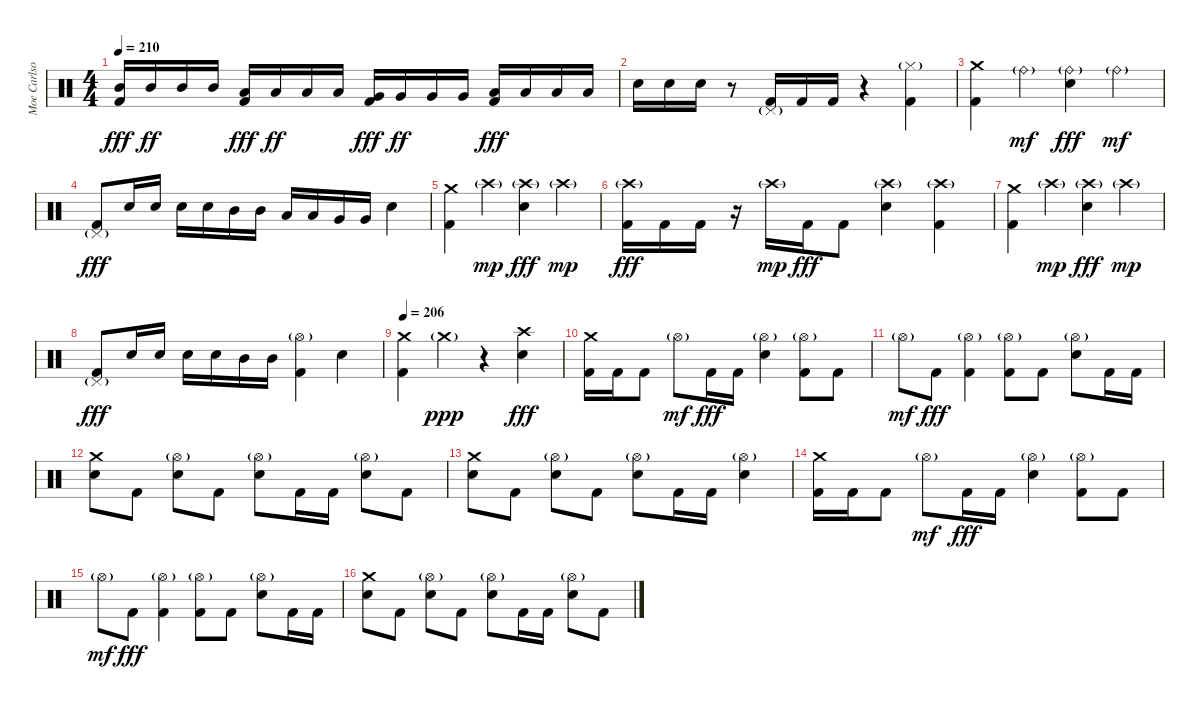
\track ("Moe Carlson" "Moe Carlso") {instrument percussion}
\staff {score}
\articulation defaults
\ts (4 4)
\tempo 210
\clef neutral
\ks c
("Mid Tom (hit)" "Kick (hit) 2").16{dy fff} "Mid Tom (hit)".16{dy ff} "Mid Tom (hit)".16 "Mid Tom (hit)".16 ("Low Tom (hit)" "Kick (hit) 2").16{dy fff} "Low Tom (hit)".16{dy ff} "Low Tom (hit)".16 "Low Tom (hit)".16 ("Very Low Tom (hit)" "Kick (hit) 2").16{dy fff} "Very Low Tom (hit)".16{dy ff} "Very Low Tom (hit)".16 "Very Low Tom (hit)".16 ("Low Floor Tom (hit)" "Kick (hit) 2").16{dy fff} "Low Floor Tom (hit)".16 "Low Floor Tom (hit)".16 "Low Floor Tom (hit)".16 |
"Electric Snare (hit)".16 "Electric Snare (hit)".16 "Electric Snare (hit)".16 r.8 ("Pedal Hi-Hat (hit)"{g} "Kick (hit) 2").16 "Kick (hit) 2".16 "Kick (hit) 2".16 r.4 ("Hi-Hat (closed)"{g} "Kick (hit) 2").4 |
("Crash medium (hit)" "Kick (hit) 2").4 "Ride (bell)"{g}.4{dy mf} ("Ride (bell)"{g} "Electric Snare (hit)").4{dy fff} "Ride (bell)"{g}.4{dy mf} |
("Pedal Hi-Hat (hit)"{g} "Kick (hit) 2").8{dy fff} "Electric Snare (hit)".16 "Electric Snare (hit)".16 "Electric Snare (hit)".16 "Electric Snare (hit)".16 "Mid Tom (hit)".16 "Mid Tom (hit)".16 "Low Tom (hit)".16 "Low Tom (hit)".16 "Very Low Tom (hit)".16 "Very Low Tom (hit)".16 "Electric Snare (hit)".4 |
("Crash medium (hit)" "Kick (hit) 2").4 "Crash high (hit)"{g}.4{dy mp} ("Crash high (hit)"{g} "Electric Snare (hit)").4{dy fff} "Crash high (hit)"{g}.4{dy mp} |
("Crash high (hit)"{g} "Kick (hit) 2").16{dy fff} "Kick (hit) 2".16 "Kick (hit) 2".16 r.16 "Crash high (hit)"{g}.16{dy mp} "Kick (hit) 2".16{dy fff} "Kick (hit) 2".8 ("Crash high (hit)"{g} "Electric Snare (hit)").4 ("Crash high (hit)"{g} "Kick (hit) 2").4 |
("Crash medium (hit)" "Kick (hit) 2").4 "Crash high (hit)"{g}.4{dy mp} ("Crash high (hit)"{g} "Electric Snare (hit)").4{dy fff} "Crash high (hit)"{g}.4{dy mp} |
("Pedal Hi-Hat (hit)"{g} "Kick (hit) 2").8{dy fff} "Electric Snare (hit)".16 "Electric Snare (hit)".16 "Electric Snare (hit)".16 "Electric Snare (hit)".16 "Mid Tom (hit)".16 "Mid Tom (hit)".16 ("Hi-Hat (open)"{g} "Kick (hit) 2").4 "Electric Snare (hit)".4 |
\tempo 206
("Crash medium (hit)" "Kick (hit) 2").4 "Crash medium (hit)"{g}.4{dy ppp} r.4 ("Crash high (hit)" "Electric Snare (hit)").4{dy fff} |
("Crash medium (hit)" "Kick (hit) 2").16 "Kick (hit) 2".16 "Kick (hit) 2".8 "Hi-Hat (open)"{g}.8{dy mf} "Kick (hit) 2".16{dy fff} "Kick (hit) 2".16 ("Hi-Hat (open)"{g} "Electric Snare (hit)").4 ("Hi-Hat (open)"{g} "Kick (hit) 2").8 "Kick (hit) 2".8 |
"Hi-Hat (open)"{g}.8{dy mf} "Kick (hit) 2".8{dy fff} ("Hi-Hat (open)"{g} "Kick (hit) 2").4 ("Hi-Hat (open)"{g} "Kick (hit) 2").8 "Kick (hit) 2".8 ("Hi-Hat (open)"{g} "Electric Snare (hit)").8 "Kick (hit) 2".16 "Kick (hit) 2".16 |
("Crash medium (hit)" "Electric Snare (hit)").8 "Kick (hit) 2".8 ("Hi-Hat (open)"{g} "Electric Snare (hit)").8 "Kick (hit) 2".8 ("Hi-Hat (open)"{g} "Electric Snare (hit)").8 "Kick (hit) 2".16 "Kick (hit) 2".16 ("Hi-Hat (open)"{g} "Electric Snare (hit)").8 "Kick (hit) 2".8 |
("Crash medium (hit)" "Electric Snare (hit)").8 "Kick (hit) 2".8 ("Hi-Hat (open)"{g} "Electric Snare (hit)").8 "Kick (hit) 2".8 ("Hi-Hat (open)"{g} "Electric Snare (hit)").8 "Kick (hit) 2".16 "Kick (hit) 2".16 ("Hi-Hat (open)"{g} "Electric Snare (hit)").4 |
("Crash medium (hit)" "Kick (hit) 2").16 "Kick (hit) 2".16 "Kick (hit) 2".8 "Hi-Hat (open)"{g}.8{dy mf} "Kick (hit) 2".16{dy fff} "Kick (hit) 2".16 ("Hi-Hat (open)"{g} "Electric Snare (hit)").4 ("Hi-Hat (open)"{g} "Kick (hit) 2").8 "Kick (hit) 2".8 |
"Hi-Hat (open)"{g}.8{dy mf} "Kick (hit) 2".8{dy fff} ("Hi-Hat (open)"{g} "Kick (hit) 2").4 ("Hi-Hat (open)"{g} "Kick (hit) 2").8 "Kick (hit) 2".8 ("Hi-Hat (open)"{g} "Electric Snare (hit)").8 "Kick (hit) 2".16 "Kick (hit) 2".16 |
("Crash medium (hit)" "Electric Snare (hit)").8 "Kick (hit) 2".8 ("Hi-Hat (open)"{g} "Electric Snare (hit)").8 "Kick (hit) 2".8 ("Hi-Hat (open)"{g} "Electric Snare (hit)").8 "Kick (hit) 2".16 "Kick (hit) 2".16 ("Hi-Hat (open)"{g} "Electric Snare (hit)").8 "Kick (hit) 2".8
